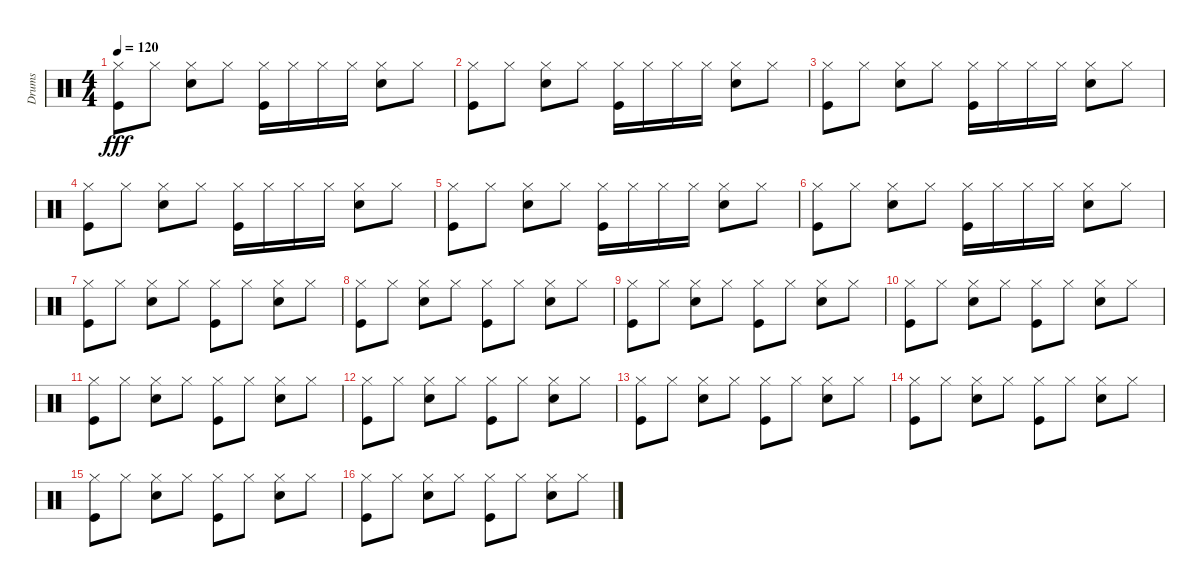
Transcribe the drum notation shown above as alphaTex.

\track ("Drums" "Drums") {instrument percussion}
\staff {score}
\articulation defaults
\ts (4 4)
\tempo 120
\clef neutral
\ks c
("Kick (hit)" "Hi-Hat (closed)").8{dy fff} "Hi-Hat (closed)".8 ("Snare (hit) 2" "Hi-Hat (closed)").8 "Hi-Hat (closed)".8 ("Kick (hit)" "Hi-Hat (closed)").16 "Hi-Hat (closed)".16 "Hi-Hat (closed)".16 "Hi-Hat (closed)".16 ("Snare (hit) 2" "Hi-Hat (closed)").8 "Hi-Hat (closed)".8 |
("Kick (hit)" "Hi-Hat (closed)").8 "Hi-Hat (closed)".8 ("Snare (hit) 2" "Hi-Hat (closed)").8 "Hi-Hat (closed)".8 ("Kick (hit)" "Hi-Hat (closed)").16 "Hi-Hat (closed)".16 "Hi-Hat (closed)".16 "Hi-Hat (closed)".16 ("Snare (hit) 2" "Hi-Hat (closed)").8 "Hi-Hat (closed)".8 |
("Kick (hit)" "Hi-Hat (closed)").8 "Hi-Hat (closed)".8 ("Snare (hit) 2" "Hi-Hat (closed)").8 "Hi-Hat (closed)".8 ("Kick (hit)" "Hi-Hat (closed)").16 "Hi-Hat (closed)".16 "Hi-Hat (closed)".16 "Hi-Hat (closed)".16 ("Snare (hit) 2" "Hi-Hat (closed)").8 "Hi-Hat (closed)".8 |
("Kick (hit)" "Hi-Hat (closed)").8 "Hi-Hat (closed)".8 ("Snare (hit) 2" "Hi-Hat (closed)").8 "Hi-Hat (closed)".8 ("Kick (hit)" "Hi-Hat (closed)").16 "Hi-Hat (closed)".16 "Hi-Hat (closed)".16 "Hi-Hat (closed)".16 ("Snare (hit) 2" "Hi-Hat (closed)").8 "Hi-Hat (closed)".8 |
("Kick (hit)" "Hi-Hat (closed)").8 "Hi-Hat (closed)".8 ("Snare (hit) 2" "Hi-Hat (closed)").8 "Hi-Hat (closed)".8 ("Kick (hit)" "Hi-Hat (closed)").16 "Hi-Hat (closed)".16 "Hi-Hat (closed)".16 "Hi-Hat (closed)".16 ("Snare (hit) 2" "Hi-Hat (closed)").8 "Hi-Hat (closed)".8 |
("Kick (hit)" "Hi-Hat (closed)").8 "Hi-Hat (closed)".8 ("Snare (hit) 2" "Hi-Hat (closed)").8 "Hi-Hat (closed)".8 ("Kick (hit)" "Hi-Hat (closed)").16 "Hi-Hat (closed)".16 "Hi-Hat (closed)".16 "Hi-Hat (closed)".16 ("Snare (hit) 2" "Hi-Hat (closed)").8 "Hi-Hat (closed)".8 |
("Kick (hit)" "Hi-Hat (closed)").8 "Hi-Hat (closed)".8 ("Snare (hit) 2" "Hi-Hat (closed)").8 "Hi-Hat (closed)".8 ("Kick (hit)" "Hi-Hat (closed)").8 "Hi-Hat (closed)".8 ("Snare (hit) 2" "Hi-Hat (closed)").8 "Hi-Hat (closed)".8 |
("Kick (hit)" "Hi-Hat (closed)").8 "Hi-Hat (closed)".8 ("Snare (hit) 2" "Hi-Hat (closed)").8 "Hi-Hat (closed)".8 ("Kick (hit)" "Hi-Hat (closed)").8 "Hi-Hat (closed)".8 ("Snare (hit) 2" "Hi-Hat (closed)").8 "Hi-Hat (closed)".8 |
("Kick (hit)" "Hi-Hat (closed)").8 "Hi-Hat (closed)".8 ("Snare (hit) 2" "Hi-Hat (closed)").8 "Hi-Hat (closed)".8 ("Kick (hit)" "Hi-Hat (closed)").8 "Hi-Hat (closed)".8 ("Snare (hit) 2" "Hi-Hat (closed)").8 "Hi-Hat (closed)".8 |
("Kick (hit)" "Hi-Hat (closed)").8 "Hi-Hat (closed)".8 ("Snare (hit) 2" "Hi-Hat (closed)").8 "Hi-Hat (closed)".8 ("Kick (hit)" "Hi-Hat (closed)").8 "Hi-Hat (closed)".8 ("Snare (hit) 2" "Hi-Hat (closed)").8 "Hi-Hat (closed)".8 |
("Kick (hit)" "Hi-Hat (closed)").8 "Hi-Hat (closed)".8 ("Snare (hit) 2" "Hi-Hat (closed)").8 "Hi-Hat (closed)".8 ("Kick (hit)" "Hi-Hat (closed)").8 "Hi-Hat (closed)".8 ("Snare (hit) 2" "Hi-Hat (closed)").8 "Hi-Hat (closed)".8 |
("Kick (hit)" "Hi-Hat (closed)").8 "Hi-Hat (closed)".8 ("Snare (hit) 2" "Hi-Hat (closed)").8 "Hi-Hat (closed)".8 ("Kick (hit)" "Hi-Hat (closed)").8 "Hi-Hat (closed)".8 ("Snare (hit) 2" "Hi-Hat (closed)").8 "Hi-Hat (closed)".8 |
("Kick (hit)" "Hi-Hat (closed)").8 "Hi-Hat (closed)".8 ("Snare (hit) 2" "Hi-Hat (closed)").8 "Hi-Hat (closed)".8 ("Kick (hit)" "Hi-Hat (closed)").8 "Hi-Hat (closed)".8 ("Snare (hit) 2" "Hi-Hat (closed)").8 "Hi-Hat (closed)".8 |
("Kick (hit)" "Hi-Hat (closed)").8 "Hi-Hat (closed)".8 ("Snare (hit) 2" "Hi-Hat (closed)").8 "Hi-Hat (closed)".8 ("Kick (hit)" "Hi-Hat (closed)").8 "Hi-Hat (closed)".8 ("Snare (hit) 2" "Hi-Hat (closed)").8 "Hi-Hat (closed)".8 |
("Kick (hit)" "Hi-Hat (closed)").8 "Hi-Hat (closed)".8 ("Snare (hit) 2" "Hi-Hat (closed)").8 "Hi-Hat (closed)".8 ("Kick (hit)" "Hi-Hat (closed)").8 "Hi-Hat (closed)".8 ("Snare (hit) 2" "Hi-Hat (closed)").8 "Hi-Hat (closed)".8 |
("Kick (hit)" "Hi-Hat (closed)").8 "Hi-Hat (closed)".8 ("Snare (hit) 2" "Hi-Hat (closed)").8 "Hi-Hat (closed)".8 ("Kick (hit)" "Hi-Hat (closed)").8 "Hi-Hat (closed)".8 ("Snare (hit) 2" "Hi-Hat (closed)").8 "Hi-Hat (closed)".8
